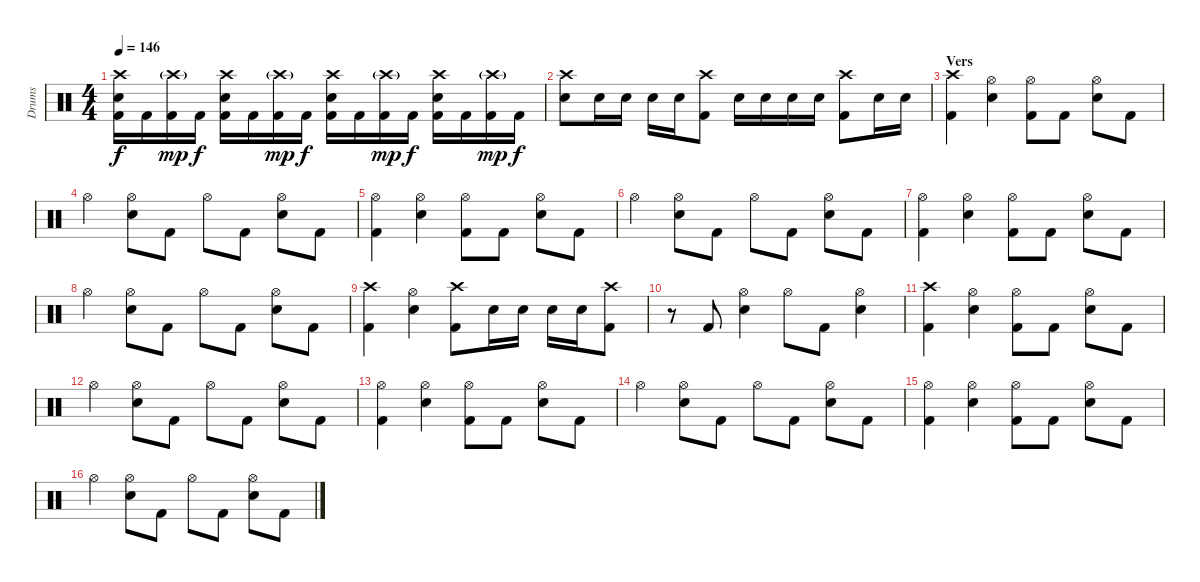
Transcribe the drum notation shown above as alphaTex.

\track ("Drums" "Drums") {instrument percussion}
\staff {score}
\articulation defaults
\ts (4 4)
\tempo 146
\clef neutral
\ks c
("Crash high (hit)" "Electric Snare (hit)" "Kick (hit) 2").16{dy f} "Kick (hit) 2".16 ("Crash high (hit)"{g} "Kick (hit) 2").16{dy mp} "Kick (hit) 2".16{dy f} ("Crash high (hit)" "Electric Snare (hit)" "Kick (hit) 2").16 "Kick (hit) 2".16 ("Crash high (hit)"{g} "Kick (hit) 2").16{dy mp} "Kick (hit) 2".16{dy f} ("Crash high (hit)" "Electric Snare (hit)" "Kick (hit) 2").16 "Kick (hit) 2".16 ("Crash high (hit)"{g} "Kick (hit) 2").16{dy mp} "Kick (hit) 2".16{dy f} ("Crash high (hit)" "Electric Snare (hit)" "Kick (hit) 2").16 "Kick (hit) 2".16 ("Crash high (hit)"{g} "Kick (hit) 2").16{dy mp} "Kick (hit) 2".16{dy f} |
("Crash high (hit)" "Electric Snare (hit)").8 "Electric Snare (hit)".16 "Electric Snare (hit)".16 "Electric Snare (hit)".16 "Electric Snare (hit)".16 ("Crash high (hit)" "Kick (hit) 2").8 "Electric Snare (hit)".16 "Electric Snare (hit)".16 "Electric Snare (hit)".16 "Electric Snare (hit)".16 ("Crash high (hit)" "Kick (hit) 2").8 "Electric Snare (hit)".16 "Electric Snare (hit)".16 |
\section ("" "Vers")
("Crash high (hit)" "Kick (hit) 2").4 ("Hi-Hat (open)" "Electric Snare (hit)").4 ("Hi-Hat (open)" "Kick (hit) 2").8 "Kick (hit) 2".8 ("Hi-Hat (open)" "Electric Snare (hit)").8 "Kick (hit) 2".8 |
"Hi-Hat (open)".4 ("Hi-Hat (open)" "Electric Snare (hit)").8 "Kick (hit) 2".8 "Hi-Hat (open)".8 "Kick (hit) 2".8 ("Hi-Hat (open)" "Electric Snare (hit)").8 "Kick (hit) 2".8 |
("Hi-Hat (open)" "Kick (hit) 2").4 ("Hi-Hat (open)" "Electric Snare (hit)").4 ("Hi-Hat (open)" "Kick (hit) 2").8 "Kick (hit) 2".8 ("Hi-Hat (open)" "Electric Snare (hit)").8 "Kick (hit) 2".8 |
"Hi-Hat (open)".4 ("Hi-Hat (open)" "Electric Snare (hit)").8 "Kick (hit) 2".8 "Hi-Hat (open)".8 "Kick (hit) 2".8 ("Hi-Hat (open)" "Electric Snare (hit)").8 "Kick (hit) 2".8 |
("Hi-Hat (open)" "Kick (hit) 2").4 ("Hi-Hat (open)" "Electric Snare (hit)").4 ("Hi-Hat (open)" "Kick (hit) 2").8 "Kick (hit) 2".8 ("Hi-Hat (open)" "Electric Snare (hit)").8 "Kick (hit) 2".8 |
"Hi-Hat (open)".4 ("Hi-Hat (open)" "Electric Snare (hit)").8 "Kick (hit) 2".8 "Hi-Hat (open)".8 "Kick (hit) 2".8 ("Hi-Hat (open)" "Electric Snare (hit)").8 "Kick (hit) 2".8 |
("Crash high (hit)" "Kick (hit) 2").4 ("Hi-Hat (open)" "Electric Snare (hit)").4 ("Crash high (hit)" "Kick (hit) 2").8 "Electric Snare (hit)".16 "Electric Snare (hit)".16 "Electric Snare (hit)".16 "Electric Snare (hit)".16 ("Crash high (hit)" "Kick (hit) 2").8 |
r.8 "Kick (hit) 2".8 ("Hi-Hat (open)" "Electric Snare (hit)").4 "Hi-Hat (open)".8 "Kick (hit) 2".8 ("Hi-Hat (open)" "Electric Snare (hit)").4 |
("Crash high (hit)" "Kick (hit) 2").4 ("Hi-Hat (open)" "Electric Snare (hit)").4 ("Hi-Hat (open)" "Kick (hit) 2").8 "Kick (hit) 2".8 ("Hi-Hat (open)" "Electric Snare (hit)").8 "Kick (hit) 2".8 |
"Hi-Hat (open)".4 ("Hi-Hat (open)" "Electric Snare (hit)").8 "Kick (hit) 2".8 "Hi-Hat (open)".8 "Kick (hit) 2".8 ("Hi-Hat (open)" "Electric Snare (hit)").8 "Kick (hit) 2".8 |
("Hi-Hat (open)" "Kick (hit) 2").4 ("Hi-Hat (open)" "Electric Snare (hit)").4 ("Hi-Hat (open)" "Kick (hit) 2").8 "Kick (hit) 2".8 ("Hi-Hat (open)" "Electric Snare (hit)").8 "Kick (hit) 2".8 |
"Hi-Hat (open)".4 ("Hi-Hat (open)" "Electric Snare (hit)").8 "Kick (hit) 2".8 "Hi-Hat (open)".8 "Kick (hit) 2".8 ("Hi-Hat (open)" "Electric Snare (hit)").8 "Kick (hit) 2".8 |
("Hi-Hat (open)" "Kick (hit) 2").4 ("Hi-Hat (open)" "Electric Snare (hit)").4 ("Hi-Hat (open)" "Kick (hit) 2").8 "Kick (hit) 2".8 ("Hi-Hat (open)" "Electric Snare (hit)").8 "Kick (hit) 2".8 |
"Hi-Hat (open)".4 ("Hi-Hat (open)" "Electric Snare (hit)").8 "Kick (hit) 2".8 "Hi-Hat (open)".8 "Kick (hit) 2".8 ("Hi-Hat (open)" "Electric Snare (hit)").8 "Kick (hit) 2".8
